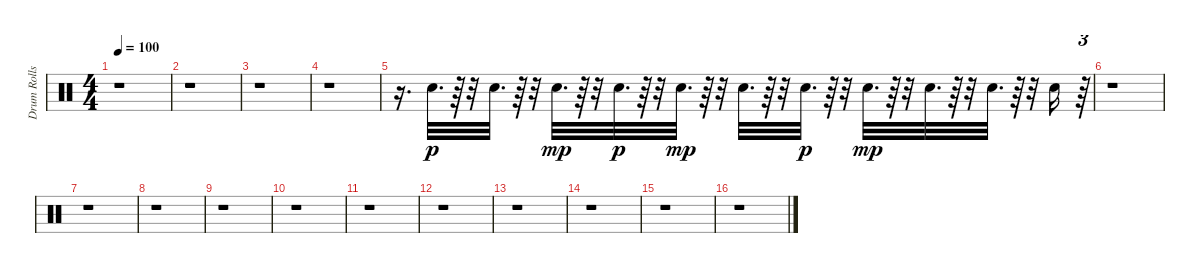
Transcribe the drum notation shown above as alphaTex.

\track ("Drum Rolls" "Drum Rolls") {instrument percussion}
\staff {score}
\articulation defaults
\ts (4 4)
\tempo 100
\clef neutral
\ks c
r.1{dy ff} |
r.1 |
r.1 |
r.1 |
r.16{d} "Electric Snare (hit)".32{d dy p} r.64 r.32 "Electric Snare (hit)".32{d} r.64 r.32 "Electric Snare (hit)".32{d dy mp} r.64 r.32 "Electric Snare (hit)".32{d dy p} r.64 r.32 "Electric Snare (hit)".32{d dy mp} r.64 r.32 "Electric Snare (hit)".32{d} r.64 r.32 "Electric Snare (hit)".32{d dy p} r.64 r.32 "Electric Snare (hit)".32{d dy mp} r.64 r.32 "Electric Snare (hit)".32{d} r.64 r.32 "Electric Snare (hit)".32{d} r.64 r.32 "Electric Snare (hit)".16 r.64{tu (3 2)} |
r.1 |
r.1 |
r.1 |
r.1 |
r.1 |
r.1 |
r.1 |
r.1 |
r.1 |
r.1 |
r.1
